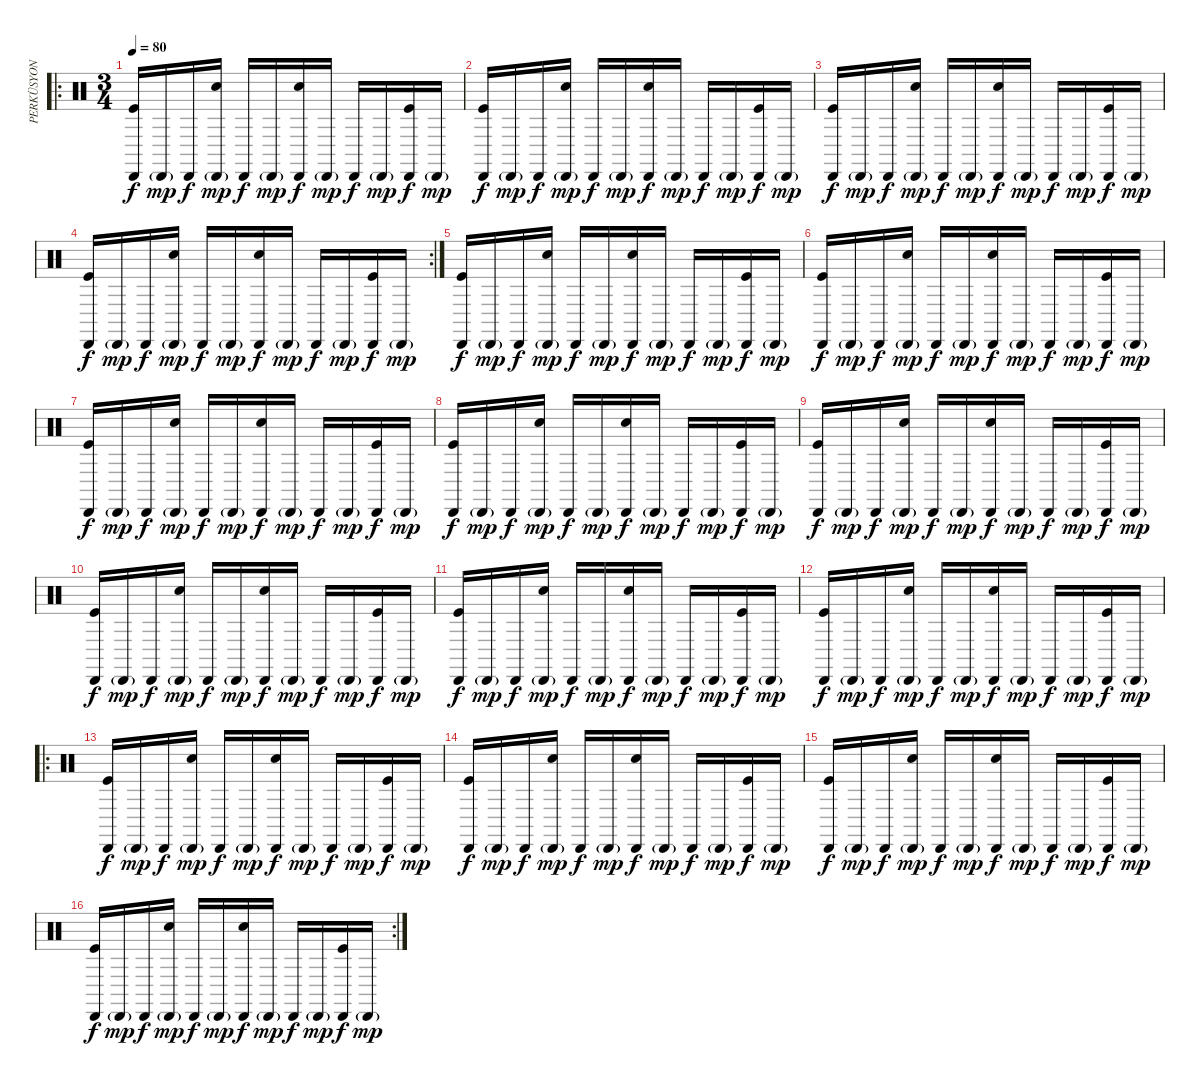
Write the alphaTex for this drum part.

\track ("PERKÜSYON" "PERKÜSYON") {instrument percussion}
\staff {score}
\articulation defaults
\ro
\ts (3 4)
\tempo 80
\clef neutral
\ks c
("Cabasa (hit)" "Kick (hit)").16{dy f} "Cabasa (hit)"{g}.16{dy mp} "Cabasa (hit)".16{dy f} ("Cabasa (hit)"{g} "Electric Snare (hit)").16{dy mp} "Cabasa (hit)".16{dy f} "Cabasa (hit)"{g}.16{dy mp} ("Cabasa (hit)" "Electric Snare (hit)").16{dy f} "Cabasa (hit)"{g}.16{dy mp} "Cabasa (hit)".16{dy f} "Cabasa (hit)"{g}.16{dy mp} ("Cabasa (hit)" "Kick (hit)").16{dy f} "Cabasa (hit)"{g}.16{dy mp} |
("Cabasa (hit)" "Kick (hit)").16{dy f} "Cabasa (hit)"{g}.16{dy mp} "Cabasa (hit)".16{dy f} ("Cabasa (hit)"{g} "Electric Snare (hit)").16{dy mp} "Cabasa (hit)".16{dy f} "Cabasa (hit)"{g}.16{dy mp} ("Cabasa (hit)" "Electric Snare (hit)").16{dy f} "Cabasa (hit)"{g}.16{dy mp} "Cabasa (hit)".16{dy f} "Cabasa (hit)"{g}.16{dy mp} ("Cabasa (hit)" "Kick (hit)").16{dy f} "Cabasa (hit)"{g}.16{dy mp} |
("Cabasa (hit)" "Kick (hit)").16{dy f} "Cabasa (hit)"{g}.16{dy mp} "Cabasa (hit)".16{dy f} ("Cabasa (hit)"{g} "Electric Snare (hit)").16{dy mp} "Cabasa (hit)".16{dy f} "Cabasa (hit)"{g}.16{dy mp} ("Cabasa (hit)" "Electric Snare (hit)").16{dy f} "Cabasa (hit)"{g}.16{dy mp} "Cabasa (hit)".16{dy f} "Cabasa (hit)"{g}.16{dy mp} ("Cabasa (hit)" "Kick (hit)").16{dy f} "Cabasa (hit)"{g}.16{dy mp} |
\rc 2
("Cabasa (hit)" "Kick (hit)").16{dy f} "Cabasa (hit)"{g}.16{dy mp} "Cabasa (hit)".16{dy f} ("Cabasa (hit)"{g} "Electric Snare (hit)").16{dy mp} "Cabasa (hit)".16{dy f} "Cabasa (hit)"{g}.16{dy mp} ("Cabasa (hit)" "Electric Snare (hit)").16{dy f} "Cabasa (hit)"{g}.16{dy mp} "Cabasa (hit)".16{dy f} "Cabasa (hit)"{g}.16{dy mp} ("Cabasa (hit)" "Kick (hit)").16{dy f} "Cabasa (hit)"{g}.16{dy mp} |
("Cabasa (hit)" "Kick (hit)").16{dy f} "Cabasa (hit)"{g}.16{dy mp} "Cabasa (hit)".16{dy f} ("Cabasa (hit)"{g} "Electric Snare (hit)").16{dy mp} "Cabasa (hit)".16{dy f} "Cabasa (hit)"{g}.16{dy mp} ("Cabasa (hit)" "Electric Snare (hit)").16{dy f} "Cabasa (hit)"{g}.16{dy mp} "Cabasa (hit)".16{dy f} "Cabasa (hit)"{g}.16{dy mp} ("Cabasa (hit)" "Kick (hit)").16{dy f} "Cabasa (hit)"{g}.16{dy mp} |
("Cabasa (hit)" "Kick (hit)").16{dy f} "Cabasa (hit)"{g}.16{dy mp} "Cabasa (hit)".16{dy f} ("Cabasa (hit)"{g} "Electric Snare (hit)").16{dy mp} "Cabasa (hit)".16{dy f} "Cabasa (hit)"{g}.16{dy mp} ("Cabasa (hit)" "Electric Snare (hit)").16{dy f} "Cabasa (hit)"{g}.16{dy mp} "Cabasa (hit)".16{dy f} "Cabasa (hit)"{g}.16{dy mp} ("Cabasa (hit)" "Kick (hit)").16{dy f} "Cabasa (hit)"{g}.16{dy mp} |
("Cabasa (hit)" "Kick (hit)").16{dy f} "Cabasa (hit)"{g}.16{dy mp} "Cabasa (hit)".16{dy f} ("Cabasa (hit)"{g} "Electric Snare (hit)").16{dy mp} "Cabasa (hit)".16{dy f} "Cabasa (hit)"{g}.16{dy mp} ("Cabasa (hit)" "Electric Snare (hit)").16{dy f} "Cabasa (hit)"{g}.16{dy mp} "Cabasa (hit)".16{dy f} "Cabasa (hit)"{g}.16{dy mp} ("Cabasa (hit)" "Kick (hit)").16{dy f} "Cabasa (hit)"{g}.16{dy mp} |
("Cabasa (hit)" "Kick (hit)").16{dy f} "Cabasa (hit)"{g}.16{dy mp} "Cabasa (hit)".16{dy f} ("Cabasa (hit)"{g} "Electric Snare (hit)").16{dy mp} "Cabasa (hit)".16{dy f} "Cabasa (hit)"{g}.16{dy mp} ("Cabasa (hit)" "Electric Snare (hit)").16{dy f} "Cabasa (hit)"{g}.16{dy mp} "Cabasa (hit)".16{dy f} "Cabasa (hit)"{g}.16{dy mp} ("Cabasa (hit)" "Kick (hit)").16{dy f} "Cabasa (hit)"{g}.16{dy mp} |
("Cabasa (hit)" "Kick (hit)").16{dy f} "Cabasa (hit)"{g}.16{dy mp} "Cabasa (hit)".16{dy f} ("Cabasa (hit)"{g} "Electric Snare (hit)").16{dy mp} "Cabasa (hit)".16{dy f} "Cabasa (hit)"{g}.16{dy mp} ("Cabasa (hit)" "Electric Snare (hit)").16{dy f} "Cabasa (hit)"{g}.16{dy mp} "Cabasa (hit)".16{dy f} "Cabasa (hit)"{g}.16{dy mp} ("Cabasa (hit)" "Kick (hit)").16{dy f} "Cabasa (hit)"{g}.16{dy mp} |
("Cabasa (hit)" "Kick (hit)").16{dy f} "Cabasa (hit)"{g}.16{dy mp} "Cabasa (hit)".16{dy f} ("Cabasa (hit)"{g} "Electric Snare (hit)").16{dy mp} "Cabasa (hit)".16{dy f} "Cabasa (hit)"{g}.16{dy mp} ("Cabasa (hit)" "Electric Snare (hit)").16{dy f} "Cabasa (hit)"{g}.16{dy mp} "Cabasa (hit)".16{dy f} "Cabasa (hit)"{g}.16{dy mp} ("Cabasa (hit)" "Kick (hit)").16{dy f} "Cabasa (hit)"{g}.16{dy mp} |
("Cabasa (hit)" "Kick (hit)").16{dy f} "Cabasa (hit)"{g}.16{dy mp} "Cabasa (hit)".16{dy f} ("Cabasa (hit)"{g} "Electric Snare (hit)").16{dy mp} "Cabasa (hit)".16{dy f} "Cabasa (hit)"{g}.16{dy mp} ("Cabasa (hit)" "Electric Snare (hit)").16{dy f} "Cabasa (hit)"{g}.16{dy mp} "Cabasa (hit)".16{dy f} "Cabasa (hit)"{g}.16{dy mp} ("Cabasa (hit)" "Kick (hit)").16{dy f} "Cabasa (hit)"{g}.16{dy mp} |
("Cabasa (hit)" "Kick (hit)").16{dy f} "Cabasa (hit)"{g}.16{dy mp} "Cabasa (hit)".16{dy f} ("Cabasa (hit)"{g} "Electric Snare (hit)").16{dy mp} "Cabasa (hit)".16{dy f} "Cabasa (hit)"{g}.16{dy mp} ("Cabasa (hit)" "Electric Snare (hit)").16{dy f} "Cabasa (hit)"{g}.16{dy mp} "Cabasa (hit)".16{dy f} "Cabasa (hit)"{g}.16{dy mp} ("Cabasa (hit)" "Kick (hit)").16{dy f} "Cabasa (hit)"{g}.16{dy mp} |
\ro
("Cabasa (hit)" "Kick (hit)").16{dy f} "Cabasa (hit)"{g}.16{dy mp} "Cabasa (hit)".16{dy f} ("Cabasa (hit)"{g} "Electric Snare (hit)").16{dy mp} "Cabasa (hit)".16{dy f} "Cabasa (hit)"{g}.16{dy mp} ("Cabasa (hit)" "Electric Snare (hit)").16{dy f} "Cabasa (hit)"{g}.16{dy mp} "Cabasa (hit)".16{dy f} "Cabasa (hit)"{g}.16{dy mp} ("Cabasa (hit)" "Kick (hit)").16{dy f} "Cabasa (hit)"{g}.16{dy mp} |
("Cabasa (hit)" "Kick (hit)").16{dy f} "Cabasa (hit)"{g}.16{dy mp} "Cabasa (hit)".16{dy f} ("Cabasa (hit)"{g} "Electric Snare (hit)").16{dy mp} "Cabasa (hit)".16{dy f} "Cabasa (hit)"{g}.16{dy mp} ("Cabasa (hit)" "Electric Snare (hit)").16{dy f} "Cabasa (hit)"{g}.16{dy mp} "Cabasa (hit)".16{dy f} "Cabasa (hit)"{g}.16{dy mp} ("Cabasa (hit)" "Kick (hit)").16{dy f} "Cabasa (hit)"{g}.16{dy mp} |
("Cabasa (hit)" "Kick (hit)").16{dy f} "Cabasa (hit)"{g}.16{dy mp} "Cabasa (hit)".16{dy f} ("Cabasa (hit)"{g} "Electric Snare (hit)").16{dy mp} "Cabasa (hit)".16{dy f} "Cabasa (hit)"{g}.16{dy mp} ("Cabasa (hit)" "Electric Snare (hit)").16{dy f} "Cabasa (hit)"{g}.16{dy mp} "Cabasa (hit)".16{dy f} "Cabasa (hit)"{g}.16{dy mp} ("Cabasa (hit)" "Kick (hit)").16{dy f} "Cabasa (hit)"{g}.16{dy mp} |
\rc 2
("Cabasa (hit)" "Kick (hit)").16{dy f} "Cabasa (hit)"{g}.16{dy mp} "Cabasa (hit)".16{dy f} ("Cabasa (hit)"{g} "Electric Snare (hit)").16{dy mp} "Cabasa (hit)".16{dy f} "Cabasa (hit)"{g}.16{dy mp} ("Cabasa (hit)" "Electric Snare (hit)").16{dy f} "Cabasa (hit)"{g}.16{dy mp} "Cabasa (hit)".16{dy f} "Cabasa (hit)"{g}.16{dy mp} ("Cabasa (hit)" "Kick (hit)").16{dy f} "Cabasa (hit)"{g}.16{dy mp}
